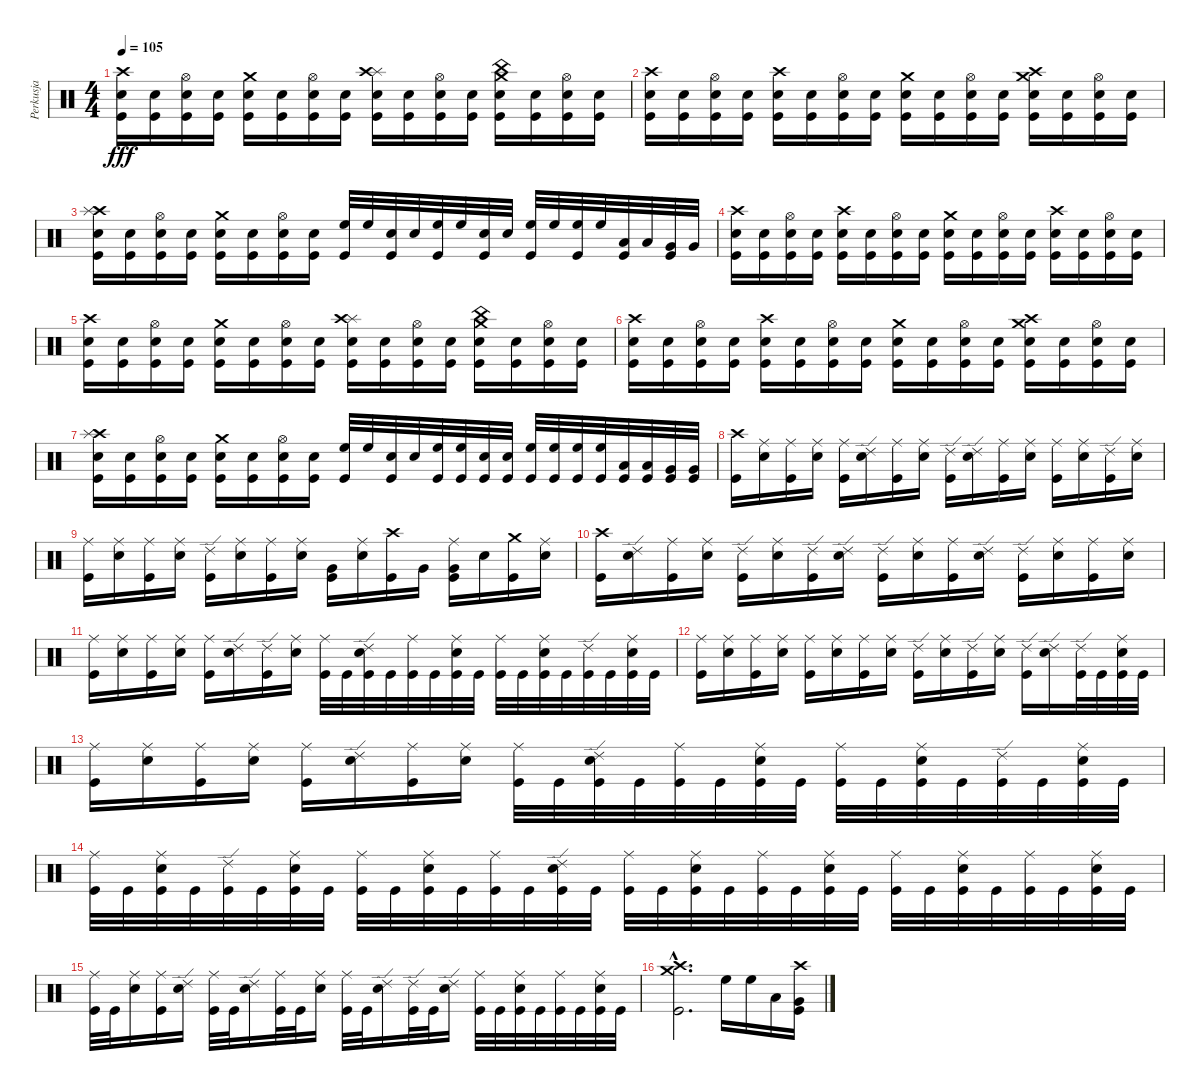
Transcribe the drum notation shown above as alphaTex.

\track ("Perkusja" "Perkusja") {instrument percussion}
\staff {score}
\articulation defaults
\ts (4 4)
\tempo 105
\clef neutral
\ks c
("Crash high (hit)" "Snare (hit) 2" "Kick (hit)").16{dy fff} ("Snare (hit) 2" "Kick (hit)").16 ("Hi-Hat (open)" "Snare (hit) 2" "Kick (hit)").16 ("Snare (hit) 2" "Kick (hit)").16 ("Crash medium (hit)" "Snare (hit) 2" "Kick (hit)").16 ("Snare (hit) 2" "Kick (hit)").16 ("Hi-Hat (open)" "Snare (hit) 2" "Kick (hit)").16 ("Snare (hit) 2" "Kick (hit)").16 ("Splash (hit)" "Crash high (hit)" "Snare (hit) 2" "Kick (hit)").16 ("Snare (hit) 2" "Kick (hit)").16 ("Hi-Hat (open)" "Snare (hit) 2" "Kick (hit)").16 ("Snare (hit) 2" "Kick (hit)").16 ("China (hit)" "Crash medium (hit)" "Snare (hit) 2" "Kick (hit)").16 ("Snare (hit) 2" "Kick (hit)").16 ("Hi-Hat (open)" "Snare (hit) 2" "Kick (hit)").16 ("Snare (hit) 2" "Kick (hit)").16 |
("Crash high (hit)" "Snare (hit) 2" "Kick (hit)").16 ("Snare (hit) 2" "Kick (hit)").16 ("Hi-Hat (open)" "Snare (hit) 2" "Kick (hit)").16 ("Snare (hit) 2" "Kick (hit)").16 ("Crash high (hit)" "Snare (hit) 2" "Kick (hit)").16 ("Snare (hit) 2" "Kick (hit)").16 ("Hi-Hat (open)" "Snare (hit) 2" "Kick (hit)").16 ("Snare (hit) 2" "Kick (hit)").16 ("Crash medium (hit)" "Snare (hit) 2" "Kick (hit)").16 ("Snare (hit) 2" "Kick (hit)").16 ("Hi-Hat (open)" "Snare (hit) 2" "Kick (hit)").16 ("Snare (hit) 2" "Kick (hit)").16 ("Crash medium (hit)" "Crash high (hit)" "Snare (hit) 2" "Kick (hit)").16 ("Snare (hit) 2" "Kick (hit)").16 ("Hi-Hat (open)" "Snare (hit) 2" "Kick (hit)").16 ("Snare (hit) 2" "Kick (hit)").16 |
("Crash high (hit)" "Splash (hit)" "Snare (hit) 2" "Kick (hit)").16 ("Snare (hit) 2" "Kick (hit)").16 ("Hi-Hat (open)" "Snare (hit) 2" "Kick (hit)").16 ("Snare (hit) 2" "Kick (hit)").16 ("Crash medium (hit)" "Snare (hit) 2" "Kick (hit)").16 ("Snare (hit) 2" "Kick (hit)").16 ("Hi-Hat (open)" "Snare (hit) 2" "Kick (hit)").16 ("Snare (hit) 2" "Kick (hit)").16 ("High Floor Tom (hit)" "Kick (hit)").32{balance 4} "High Floor Tom (hit)".32 ("Snare (hit) 2" "Kick (hit)").32{balance 8} "Snare (hit) 2".32 ("High Floor Tom (hit)" "Kick (hit)").32{balance 4} "High Floor Tom (hit)".32 ("Snare (hit) 2" "Kick (hit)").32{balance 8} "Snare (hit) 2".32 ("High Floor Tom (hit)" "Kick (hit)").32{balance 4} "High Floor Tom (hit)".32 ("High Floor Tom (hit)" "Kick (hit)").32 "High Floor Tom (hit)".32 ("Low Tom (hit)" "Kick (hit)").32{balance 12} "Low Tom (hit)".32 ("Very Low Tom (hit)" "Kick (hit)").32{balance 16} "Very Low Tom (hit)".32 |
("Crash high (hit)" "Snare (hit) 2" "Kick (hit)").16{balance 8} ("Snare (hit) 2" "Kick (hit)").16 ("Hi-Hat (open)" "Snare (hit) 2" "Kick (hit)").16 ("Snare (hit) 2" "Kick (hit)").16 ("Crash high (hit)" "Snare (hit) 2" "Kick (hit)").16 ("Snare (hit) 2" "Kick (hit)").16 ("Hi-Hat (open)" "Snare (hit) 2" "Kick (hit)").16 ("Snare (hit) 2" "Kick (hit)").16 ("Crash medium (hit)" "Snare (hit) 2" "Kick (hit)").16 ("Snare (hit) 2" "Kick (hit)").16 ("Hi-Hat (open)" "Snare (hit) 2" "Kick (hit)").16 ("Snare (hit) 2" "Kick (hit)").16 ("Crash high (hit)" "Snare (hit) 2" "Kick (hit)").16 ("Snare (hit) 2" "Kick (hit)").16 ("Hi-Hat (open)" "Snare (hit) 2" "Kick (hit)").16 ("Snare (hit) 2" "Kick (hit)").16 |
("Crash high (hit)" "Snare (hit) 2" "Kick (hit)").16 ("Snare (hit) 2" "Kick (hit)").16 ("Hi-Hat (open)" "Snare (hit) 2" "Kick (hit)").16 ("Snare (hit) 2" "Kick (hit)").16 ("Crash medium (hit)" "Snare (hit) 2" "Kick (hit)").16 ("Snare (hit) 2" "Kick (hit)").16 ("Hi-Hat (open)" "Snare (hit) 2" "Kick (hit)").16 ("Snare (hit) 2" "Kick (hit)").16 ("Splash (hit)" "Crash high (hit)" "Snare (hit) 2" "Kick (hit)").16 ("Snare (hit) 2" "Kick (hit)").16 ("Hi-Hat (open)" "Snare (hit) 2" "Kick (hit)").16 ("Snare (hit) 2" "Kick (hit)").16 ("China (hit)" "Crash medium (hit)" "Snare (hit) 2" "Kick (hit)").16 ("Snare (hit) 2" "Kick (hit)").16 ("Hi-Hat (open)" "Snare (hit) 2" "Kick (hit)").16 ("Snare (hit) 2" "Kick (hit)").16 |
("Crash high (hit)" "Snare (hit) 2" "Kick (hit)").16 ("Snare (hit) 2" "Kick (hit)").16 ("Hi-Hat (open)" "Snare (hit) 2" "Kick (hit)").16 ("Snare (hit) 2" "Kick (hit)").16 ("Crash high (hit)" "Snare (hit) 2" "Kick (hit)").16 ("Snare (hit) 2" "Kick (hit)").16 ("Hi-Hat (open)" "Snare (hit) 2" "Kick (hit)").16 ("Snare (hit) 2" "Kick (hit)").16 ("Crash medium (hit)" "Snare (hit) 2" "Kick (hit)").16 ("Snare (hit) 2" "Kick (hit)").16 ("Hi-Hat (open)" "Snare (hit) 2" "Kick (hit)").16 ("Snare (hit) 2" "Kick (hit)").16 ("Crash medium (hit)" "Crash high (hit)" "Snare (hit) 2" "Kick (hit)").16 ("Snare (hit) 2" "Kick (hit)").16 ("Hi-Hat (open)" "Snare (hit) 2" "Kick (hit)").16 ("Snare (hit) 2" "Kick (hit)").16 |
("Crash high (hit)" "Splash (hit)" "Snare (hit) 2" "Kick (hit)").16 ("Snare (hit) 2" "Kick (hit)").16 ("Hi-Hat (open)" "Snare (hit) 2" "Kick (hit)").16 ("Snare (hit) 2" "Kick (hit)").16 ("Crash medium (hit)" "Snare (hit) 2" "Kick (hit)").16 ("Snare (hit) 2" "Kick (hit)").16 ("Hi-Hat (open)" "Snare (hit) 2" "Kick (hit)").16 ("Snare (hit) 2" "Kick (hit)").16 ("High Floor Tom (hit)" "Kick (hit)").32{balance 4} "High Floor Tom (hit)".32 ("Snare (hit) 2" "Kick (hit)").32{balance 8} "Snare (hit) 2".32 ("High Floor Tom (hit)" "Kick (hit)").32{balance 4} ("High Floor Tom (hit)" "Kick (hit)").32 ("Snare (hit) 2" "Kick (hit)").32{balance 8} ("Snare (hit) 2" "Kick (hit)").32 ("High Floor Tom (hit)" "Kick (hit)").32{balance 4} ("High Floor Tom (hit)" "Kick (hit)").32 ("High Floor Tom (hit)" "Kick (hit)").32 ("High Floor Tom (hit)" "Kick (hit)").32 ("Low Tom (hit)" "Kick (hit)").32{balance 12} ("Low Tom (hit)" "Kick (hit)").32 ("Very Low Tom (hit)" "Kick (hit)").32{balance 16} ("Very Low Tom (hit)" "Kick (hit)").32 |
("Crash high (hit)" "Kick (hit)").16{balance 8} ("Ride (middle)" "Snare (hit) 2").16 ("Ride (middle)" "Kick (hit)").16 ("Ride (middle)" "Snare (hit) 2").16 ("Ride (middle)" "Kick (hit)").16 ("Ride (edge) 2" "Snare (hit) 2").16 ("Ride (middle)" "Kick (hit)").16 ("Ride (middle)" "Snare (hit) 2").16 ("Ride (edge) 2" "Kick (hit)").16 ("Ride (edge) 2" "Snare (hit) 2").16 ("Ride (middle)" "Kick (hit)").16 ("Ride (middle)" "Snare (hit) 2").16 ("Ride (middle)" "Kick (hit)").16 ("Ride (middle)" "Snare (hit) 2").16 ("Ride (edge) 2" "Kick (hit)").16 ("Ride (middle)" "Snare (hit) 2").16 |
("Ride (middle)" "Kick (hit)").16 ("Ride (middle)" "Snare (hit) 2").16 ("Ride (middle)" "Kick (hit)").16 ("Ride (middle)" "Snare (hit) 2").16 ("Ride (edge) 2" "Kick (hit)").16 ("Ride (middle)" "Snare (hit) 2").16 ("Ride (middle)" "Kick (hit)").16 ("Ride (middle)" "Snare (hit) 2").16 ("Very Low Tom (hit)" "Kick (hit)").16 ("Ride (middle)" "Snare (hit) 2").16 ("Crash high (hit)" "Kick (hit)").16 "Very Low Tom (hit)".16 ("Ride (middle)" "Very Low Tom (hit)" "Kick (hit)").16 "Snare (hit) 2".16 ("Crash medium (hit)" "Kick (hit)").16 ("Ride (middle)" "Snare (hit) 2").16 |
("Crash high (hit)" "Kick (hit)").16 ("Ride (edge) 2" "Snare (hit) 2").16 ("Ride (middle)" "Kick (hit)").16 ("Ride (middle)" "Snare (hit) 2").16 ("Ride (edge) 2" "Kick (hit)").16 ("Ride (middle)" "Snare (hit) 2").16 ("Ride (edge) 2" "Kick (hit)").16 ("Ride (edge) 2" "Snare (hit) 2").16 ("Ride (edge) 2" "Kick (hit)").16 ("Ride (middle)" "Snare (hit) 2").16 ("Ride (middle)" "Kick (hit)").16 ("Ride (edge) 2" "Snare (hit) 2").16 ("Ride (edge) 2" "Kick (hit)").16 ("Ride (middle)" "Snare (hit) 2").16 ("Ride (middle)" "Kick (hit)").16 ("Ride (middle)" "Snare (hit) 2").16 |
("Ride (middle)" "Kick (hit)").16 ("Ride (middle)" "Snare (hit) 2").16 ("Ride (middle)" "Kick (hit)").16 ("Ride (middle)" "Snare (hit) 2").16 ("Ride (middle)" "Kick (hit)").16 ("Ride (edge) 2" "Snare (hit) 2").16 ("Ride (edge) 2" "Kick (hit)").16 ("Ride (middle)" "Snare (hit) 2").16 ("Ride (middle)" "Kick (hit)").32 "Kick (hit)".32 ("Ride (edge) 2" "Snare (hit) 2" "Kick (hit)").32 "Kick (hit)".32 ("Ride (middle)" "Kick (hit)").32 "Kick (hit)".32 ("Ride (middle)" "Snare (hit) 2" "Kick (hit)").32 "Kick (hit)".32 ("Ride (middle)" "Kick (hit)").32 "Kick (hit)".32 ("Ride (middle)" "Snare (hit) 2" "Kick (hit)").32 "Kick (hit)".32 ("Ride (edge) 2" "Kick (hit)").32 "Kick (hit)".32 ("Ride (middle)" "Snare (hit) 2" "Kick (hit)").32 "Kick (hit)".32 |
("Ride (middle)" "Kick (hit)").16 ("Ride (middle)" "Snare (hit) 2").16 ("Ride (middle)" "Kick (hit)").16 ("Ride (middle)" "Snare (hit) 2").16 ("Ride (middle)" "Kick (hit)").16 ("Ride (middle)" "Snare (hit) 2").16 ("Ride (middle)" "Kick (hit)").16 ("Ride (middle)" "Snare (hit) 2").16 ("Ride (edge) 2" "Kick (hit)").16 ("Ride (middle)" "Snare (hit) 2").16 ("Ride (edge) 2" "Kick (hit)").16 ("Ride (middle)" "Snare (hit) 2").16 ("Ride (edge) 2" "Kick (hit)").16 ("Ride (edge) 2" "Snare (hit) 2").16 ("Ride (edge) 2" "Kick (hit)").32 "Kick (hit)".32 ("Ride (middle)" "Snare (hit) 2" "Kick (hit)").32 "Kick (hit)".32 |
("Ride (middle)" "Kick (hit)").16 ("Ride (middle)" "Snare (hit) 2").16 ("Ride (middle)" "Kick (hit)").16 ("Ride (middle)" "Snare (hit) 2").16 ("Ride (middle)" "Kick (hit)").16 ("Ride (edge) 2" "Snare (hit) 2").16 ("Ride (middle)" "Kick (hit)").16 ("Ride (middle)" "Snare (hit) 2").16 ("Ride (middle)" "Kick (hit)").32 "Kick (hit)".32 ("Ride (edge) 2" "Snare (hit) 2" "Kick (hit)").32 "Kick (hit)".32 ("Ride (middle)" "Kick (hit)").32 "Kick (hit)".32 ("Ride (middle)" "Snare (hit) 2" "Kick (hit)").32 "Kick (hit)".32 ("Ride (middle)" "Kick (hit)").32 "Kick (hit)".32 ("Ride (middle)" "Snare (hit) 2" "Kick (hit)").32 "Kick (hit)".32 ("Ride (edge) 2" "Kick (hit)").32 "Kick (hit)".32 ("Ride (middle)" "Snare (hit) 2" "Kick (hit)").32 "Kick (hit)".32 |
("Ride (middle)" "Kick (hit)").32 "Kick (hit)".32 ("Ride (middle)" "Snare (hit) 2" "Kick (hit)").32 "Kick (hit)".32 ("Ride (edge) 2" "Kick (hit)").32 "Kick (hit)".32 ("Ride (middle)" "Snare (hit) 2" "Kick (hit)").32 "Kick (hit)".32 ("Ride (middle)" "Kick (hit)").32 "Kick (hit)".32 ("Ride (middle)" "Snare (hit) 2" "Kick (hit)").32 "Kick (hit)".32 ("Ride (middle)" "Kick (hit)").32 "Kick (hit)".32 ("Ride (edge) 2" "Snare (hit) 2" "Kick (hit)").32 "Kick (hit)".32 ("Ride (middle)" "Kick (hit)").32 "Kick (hit)".32 ("Ride (middle)" "Snare (hit) 2" "Kick (hit)").32 "Kick (hit)".32 ("Ride (middle)" "Kick (hit)").32 "Kick (hit)".32 ("Ride (middle)" "Snare (hit) 2" "Kick (hit)").32 "Kick (hit)".32 ("Ride (middle)" "Kick (hit)").32 "Kick (hit)".32 ("Ride (middle)" "Snare (hit) 2" "Kick (hit)").32 "Kick (hit)".32 ("Ride (middle)" "Kick (hit)").32 "Kick (hit)".32 ("Ride (middle)" "Snare (hit) 2" "Kick (hit)").32 "Kick (hit)".32 |
("Ride (middle)" "Kick (hit)").32 "Kick (hit)".32 ("Ride (middle)" "Snare (hit) 2").16 ("Ride (middle)" "Kick (hit)").16 ("Ride (edge) 2" "Snare (hit) 2").16 ("Ride (middle)" "Kick (hit)").32 "Kick (hit)".32 ("Ride (edge) 2" "Snare (hit) 2").16 ("Ride (middle)" "Kick (hit)").32 "Kick (hit)".32 ("Ride (middle)" "Snare (hit) 2").16 ("Ride (middle)" "Kick (hit)").32 "Kick (hit)".32 ("Ride (edge) 2" "Snare (hit) 2").16 ("Ride (edge) 2" "Kick (hit)").32 "Kick (hit)".32 ("Ride (edge) 2" "Snare (hit) 2").16 ("Ride (middle)" "Kick (hit)").32 "Kick (hit)".32 ("Ride (middle)" "Snare (hit) 2" "Kick (hit)").32 "Kick (hit)".32 ("Ride (middle)" "Kick (hit)").32 "Kick (hit)".32 ("Ride (middle)" "Snare (hit) 2" "Kick (hit)").32 "Kick (hit)".32 |
("Crash high (hit)"{hac} "Crash medium (hit)"{hac} "Kick (hit)"{hac}).2{d} "High Floor Tom (hit)".16 "High Floor Tom (hit)".16 "Low Tom (hit)".16 ("Crash high (hit)" "Very Low Tom (hit)" "Kick (hit)").16
